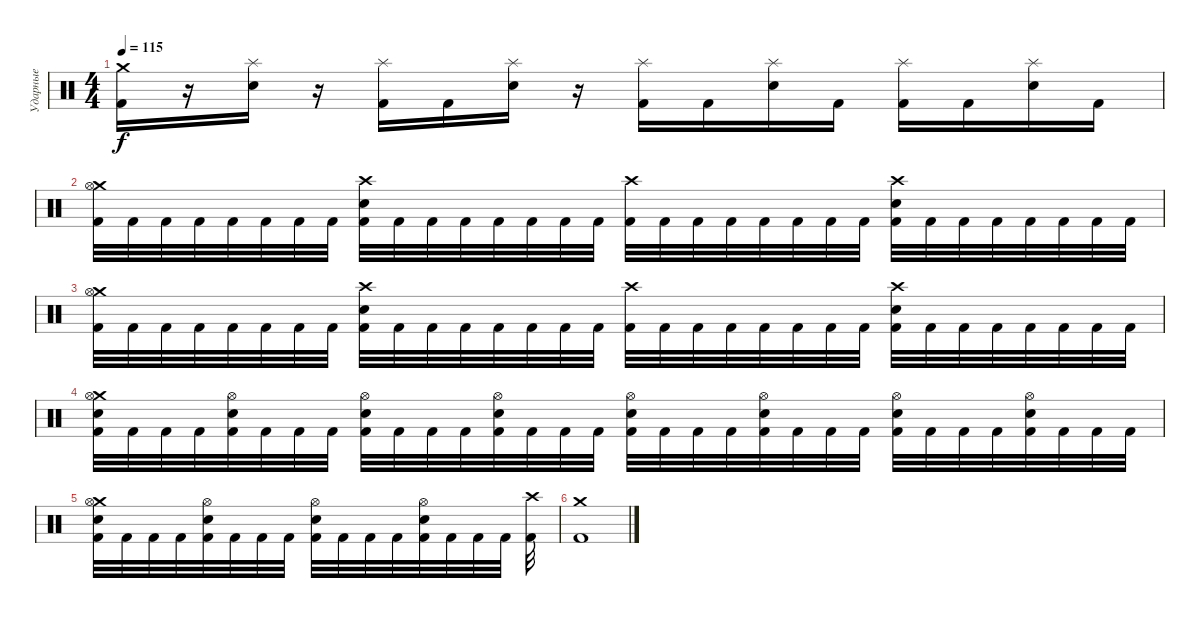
\track ("Ударные" "Ударные") {instrument percussion}
\staff {score}
\articulation defaults
\ts (4 4)
\tempo 115
\clef neutral
\ks c
("Crash medium (hit)" "Kick (hit) 2").16{dy f} r.16 ("Splash (hit)" "Electric Snare (hit)").16 r.16 ("Splash (hit)" "Kick (hit) 2").16 "Kick (hit) 2".16 ("Splash (hit)" "Electric Snare (hit)").16 r.16 ("Splash (hit)" "Kick (hit) 2").16 "Kick (hit) 2".16 ("Splash (hit)" "Electric Snare (hit)").16 "Kick (hit) 2".16 ("Splash (hit)" "Kick (hit) 2").16 "Kick (hit) 2".16 ("Splash (hit)" "Electric Snare (hit)").16 "Kick (hit) 2".16 |
("Crash medium (hit)" "Hi-Hat (open)" "Kick (hit) 2").32 "Kick (hit) 2".32 "Kick (hit) 2".32 "Kick (hit) 2".32 "Kick (hit) 2".32 "Kick (hit) 2".32 "Kick (hit) 2".32 "Kick (hit) 2".32 ("Crash high (hit)" "Electric Snare (hit)" "Kick (hit) 2").32 "Kick (hit) 2".32 "Kick (hit) 2".32 "Kick (hit) 2".32 "Kick (hit) 2".32 "Kick (hit) 2".32 "Kick (hit) 2".32 "Kick (hit) 2".32 ("Crash high (hit)" "Kick (hit) 2").32 "Kick (hit) 2".32 "Kick (hit) 2".32 "Kick (hit) 2".32 "Kick (hit) 2".32 "Kick (hit) 2".32 "Kick (hit) 2".32 "Kick (hit) 2".32 ("Crash high (hit)" "Electric Snare (hit)" "Kick (hit) 2").32 "Kick (hit) 2".32 "Kick (hit) 2".32 "Kick (hit) 2".32 "Kick (hit) 2".32 "Kick (hit) 2".32 "Kick (hit) 2".32 "Kick (hit) 2".32 |
("Crash medium (hit)" "Hi-Hat (open)" "Kick (hit) 2").32 "Kick (hit) 2".32 "Kick (hit) 2".32 "Kick (hit) 2".32 "Kick (hit) 2".32 "Kick (hit) 2".32 "Kick (hit) 2".32 "Kick (hit) 2".32 ("Crash high (hit)" "Electric Snare (hit)" "Kick (hit) 2").32 "Kick (hit) 2".32 "Kick (hit) 2".32 "Kick (hit) 2".32 "Kick (hit) 2".32 "Kick (hit) 2".32 "Kick (hit) 2".32 "Kick (hit) 2".32 ("Crash high (hit)" "Kick (hit) 2").32 "Kick (hit) 2".32 "Kick (hit) 2".32 "Kick (hit) 2".32 "Kick (hit) 2".32 "Kick (hit) 2".32 "Kick (hit) 2".32 "Kick (hit) 2".32 ("Crash high (hit)" "Electric Snare (hit)" "Kick (hit) 2").32 "Kick (hit) 2".32 "Kick (hit) 2".32 "Kick (hit) 2".32 "Kick (hit) 2".32 "Kick (hit) 2".32 "Kick (hit) 2".32 "Kick (hit) 2".32 |
("Crash medium (hit)" "Hi-Hat (open)" "Electric Snare (hit)" "Kick (hit) 2").32 "Kick (hit) 2".32 "Kick (hit) 2".32 "Kick (hit) 2".32 ("Hi-Hat (open)" "Electric Snare (hit)" "Kick (hit) 2").32 "Kick (hit) 2".32 "Kick (hit) 2".32 "Kick (hit) 2".32 ("Hi-Hat (open)" "Electric Snare (hit)" "Kick (hit) 2").32 "Kick (hit) 2".32 "Kick (hit) 2".32 "Kick (hit) 2".32 ("Hi-Hat (open)" "Electric Snare (hit)" "Kick (hit) 2").32 "Kick (hit) 2".32 "Kick (hit) 2".32 "Kick (hit) 2".32 ("Hi-Hat (open)" "Electric Snare (hit)" "Kick (hit) 2").32 "Kick (hit) 2".32 "Kick (hit) 2".32 "Kick (hit) 2".32 ("Hi-Hat (open)" "Electric Snare (hit)" "Kick (hit) 2").32 "Kick (hit) 2".32 "Kick (hit) 2".32 "Kick (hit) 2".32 ("Hi-Hat (open)" "Electric Snare (hit)" "Kick (hit) 2").32 "Kick (hit) 2".32 "Kick (hit) 2".32 "Kick (hit) 2".32 ("Hi-Hat (open)" "Electric Snare (hit)" "Kick (hit) 2").32 "Kick (hit) 2".32 "Kick (hit) 2".32 "Kick (hit) 2".32 |
("Crash medium (hit)" "Hi-Hat (open)" "Electric Snare (hit)" "Kick (hit) 2").32 "Kick (hit) 2".32 "Kick (hit) 2".32 "Kick (hit) 2".32 ("Hi-Hat (open)" "Electric Snare (hit)" "Kick (hit) 2").32 "Kick (hit) 2".32 "Kick (hit) 2".32 "Kick (hit) 2".32 ("Hi-Hat (open)" "Electric Snare (hit)" "Kick (hit) 2").32 "Kick (hit) 2".32 "Kick (hit) 2".32 "Kick (hit) 2".32 ("Hi-Hat (open)" "Electric Snare (hit)" "Kick (hit) 2").32 "Kick (hit) 2".32 "Kick (hit) 2".32 "Kick (hit) 2".32 ("Crash high (hit)" "Kick (hit) 2").32 |
("Kick (hit) 2" "Crash medium (hit)").1
